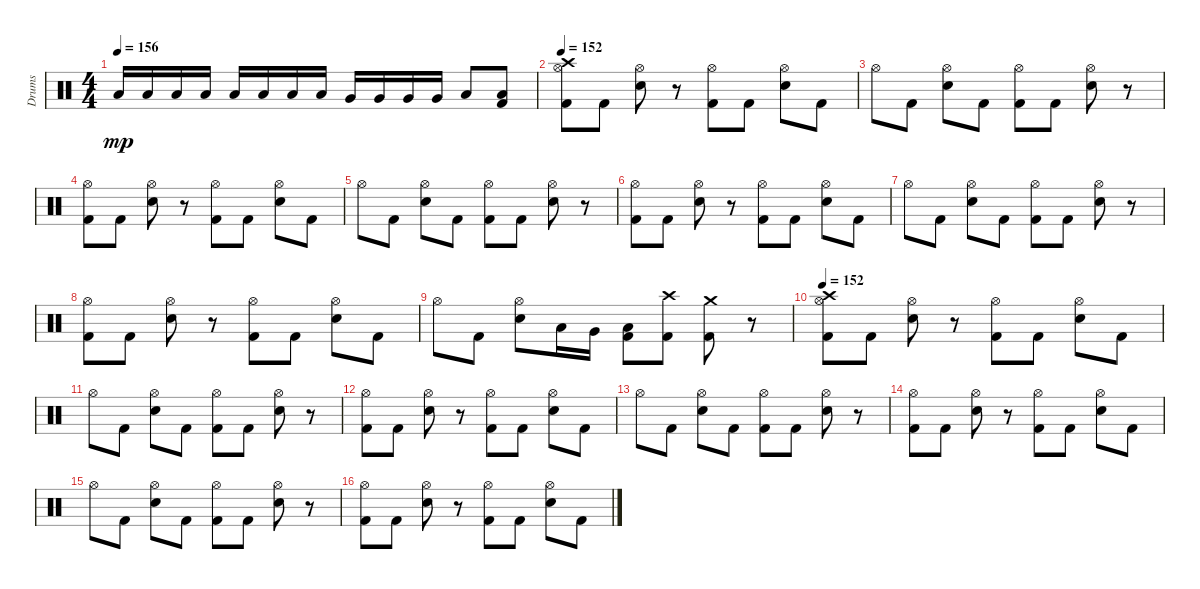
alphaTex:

\track ("Drums" "Drums") {instrument percussion}
\staff {score}
\articulation defaults
\ts (4 4)
\tempo 156
\clef neutral
\ks c "Low Tom (hit)".16{dy mp} "Low Tom (hit)".16 "Low Tom (hit)".16 "Low Tom (hit)".16 "Low Tom (hit)".16 "Low Tom (hit)".16 "Low Tom (hit)".16 "Low Tom (hit)".16 "Very Low Tom (hit)".16 "Very Low Tom (hit)".16 "Very Low Tom (hit)".16 "Very Low Tom (hit)".16 "Low Floor Tom (hit)".8
("Low Floor Tom (hit)" "Kick (hit) 2").8 |
\tempo 152
("Crash high (hit)" "Kick (hit) 2" "Hi-Hat (open)").8 "Kick (hit) 2".8 ("Hi-Hat (open)" "Snare (hit) 2").8 r.8 ("Kick (hit) 2" "Hi-Hat (open)").8 "Kick (hit) 2".8 ("Snare (hit) 2" "Hi-Hat (open)").8 "Kick (hit) 2".8 |
"Hi-Hat (open)".8 "Kick (hit) 2".8 ("Hi-Hat (open)" "Snare (hit) 2").8 "Kick (hit) 2".8 ("Kick (hit) 2" "Hi-Hat (open)").8 "Kick (hit) 2".8 ("Snare (hit) 2" "Hi-Hat (open)").8 r.8 |
("Hi-Hat (open)" "Kick (hit) 2").8 "Kick (hit) 2".8 ("Snare (hit) 2" "Hi-Hat (open)").8 r.8 ("Kick (hit) 2" "Hi-Hat (open)").8 "Kick (hit) 2".8 ("Snare (hit) 2" "Hi-Hat (open)").8 "Kick (hit) 2".8 |
"Hi-Hat (open)".8 "Kick (hit) 2".8 ("Hi-Hat (open)" "Snare (hit) 2").8 "Kick (hit) 2".8 ("Kick (hit) 2" "Hi-Hat (open)").8 "Kick (hit) 2".8 ("Snare (hit) 2" "Hi-Hat (open)").8 r.8 |
("Kick (hit) 2" "Hi-Hat (open)").8 "Kick (hit) 2".8 ("Snare (hit) 2" "Hi-Hat (open)").8 r.8 ("Kick (hit) 2" "Hi-Hat (open)").8 "Kick (hit) 2".8 ("Hi-Hat (open)" "Snare (hit) 2").8 "Kick (hit) 2".8 |
"Hi-Hat (open)".8 "Kick (hit) 2".8 ("Snare (hit) 2" "Hi-Hat (open)").8 "Kick (hit) 2".8 ("Kick (hit) 2" "Hi-Hat (open)").8 "Kick (hit) 2".8 ("Hi-Hat (open)" "Snare (hit) 2").8 r.8 |
("Hi-Hat (open)" "Kick (hit) 2").8 "Kick (hit) 2".8 ("Hi-Hat (open)" "Snare (hit) 2").8 r.8 ("Kick (hit) 2" "Hi-Hat (open)").8 "Kick (hit) 2".8 ("Hi-Hat (open)" "Snare (hit) 2").8 "Kick (hit) 2".8 |
"Hi-Hat (open)".8 "Kick (hit) 2".8 ("Snare (hit) 2" "Hi-Hat (open)").8 "Low Tom (hit)".16 "Very Low Tom (hit)".16 ("Low Floor Tom (hit)" "Kick (hit) 2").8 ("Kick (hit) 2" "Crash high (hit)").8 ("Kick (hit) 2" "Crash medium (hit)").8 r.8 |
\tempo 152
("Crash high (hit)" "Kick (hit) 2" "Hi-Hat (open)").8 "Kick (hit) 2".8 ("Hi-Hat (open)" "Snare (hit) 2").8 r.8 ("Hi-Hat (open)" "Kick (hit) 2").8 "Kick (hit) 2".8 ("Snare (hit) 2" "Hi-Hat (open)").8 "Kick (hit) 2".8 |
"Hi-Hat (open)".8 "Kick (hit) 2".8 ("Hi-Hat (open)" "Snare (hit) 2").8 "Kick (hit) 2".8 ("Hi-Hat (open)" "Kick (hit) 2").8 "Kick (hit) 2".8 ("Snare (hit) 2" "Hi-Hat (open)").8 r.8 |
("Hi-Hat (open)" "Kick (hit) 2").8 "Kick (hit) 2".8 ("Snare (hit) 2" "Hi-Hat (open)").8 r.8 ("Hi-Hat (open)" "Kick (hit) 2").8 "Kick (hit) 2".8 ("Hi-Hat (open)" "Snare (hit) 2").8 "Kick (hit) 2".8 |
"Hi-Hat (open)".8 "Kick (hit) 2".8 ("Hi-Hat (open)" "Snare (hit) 2").8 "Kick (hit) 2".8 ("Kick (hit) 2" "Hi-Hat (open)").8 "Kick (hit) 2".8 ("Hi-Hat (open)" "Snare (hit) 2").8 r.8 |
("Hi-Hat (open)" "Kick (hit) 2").8 "Kick (hit) 2".8 ("Hi-Hat (open)" "Snare (hit) 2").8 r.8 ("Hi-Hat (open)" "Kick (hit) 2").8 "Kick (hit) 2".8 ("Hi-Hat (open)" "Snare (hit) 2").8 "Kick (hit) 2".8 |
"Hi-Hat (open)".8 "Kick (hit) 2".8 ("Hi-Hat (open)" "Snare (hit) 2").8 "Kick (hit) 2".8 ("Hi-Hat (open)" "Kick (hit) 2").8 "Kick (hit) 2".8 ("Snare (hit) 2" "Hi-Hat (open)").8 r.8 |
("Hi-Hat (open)" "Kick (hit) 2").8 "Kick (hit) 2".8 ("Snare (hit) 2" "Hi-Hat (open)").8 r.8 ("Hi-Hat (open)" "Kick (hit) 2").8 "Kick (hit) 2".8 ("Snare (hit) 2" "Hi-Hat (open)").8 "Kick (hit) 2".8
